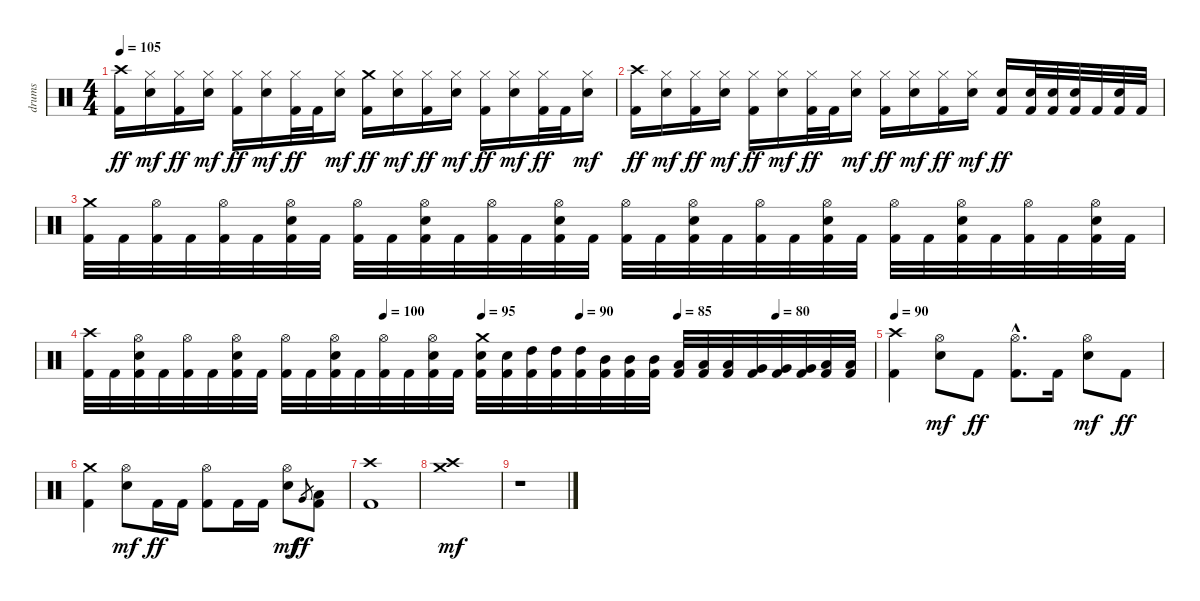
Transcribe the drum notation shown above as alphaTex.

\track ("drums" "drums") {instrument percussion}
\staff {score}
\articulation defaults
\ts (4 4)
\tempo 105
\clef neutral
\ks c
("Crash high (hit)" "Kick (hit) 2").16{dy ff} ("Hi-Hat (closed)" "Snare (hit) 2").16{dy mf} ("Hi-Hat (closed)" "Kick (hit) 2").16{dy ff} ("Hi-Hat (closed)" "Snare (hit) 2").16{dy mf} ("Hi-Hat (closed)" "Kick (hit) 2").16{dy ff} ("Hi-Hat (closed)" "Snare (hit) 2").16{dy mf} ("Hi-Hat (closed)" "Kick (hit) 2").32{dy ff} "Kick (hit) 2".32 ("Hi-Hat (closed)" "Snare (hit) 2").16{dy mf} ("Crash medium (hit)" "Kick (hit) 2").16{dy ff} ("Hi-Hat (closed)" "Snare (hit) 2").16{dy mf} ("Hi-Hat (closed)" "Kick (hit) 2").16{dy ff} ("Hi-Hat (closed)" "Snare (hit) 2").16{dy mf} ("Hi-Hat (closed)" "Kick (hit) 2").16{dy ff} ("Hi-Hat (closed)" "Snare (hit) 2").16{dy mf} ("Hi-Hat (closed)" "Kick (hit) 2").32{dy ff} "Kick (hit) 2".32 ("Hi-Hat (closed)" "Snare (hit) 2").16{dy mf} |
("Crash high (hit)" "Kick (hit) 2").16{dy ff} ("Hi-Hat (closed)" "Snare (hit) 2").16{dy mf} ("Hi-Hat (closed)" "Kick (hit) 2").16{dy ff} ("Hi-Hat (closed)" "Snare (hit) 2").16{dy mf} ("Hi-Hat (closed)" "Kick (hit) 2").16{dy ff} ("Hi-Hat (closed)" "Snare (hit) 2").16{dy mf} ("Hi-Hat (closed)" "Kick (hit) 2").32{dy ff} "Kick (hit) 2".32 ("Hi-Hat (closed)" "Snare (hit) 2").16{dy mf} ("Hi-Hat (closed)" "Kick (hit) 2").16{dy ff} ("Hi-Hat (closed)" "Snare (hit) 2").16{dy mf} ("Hi-Hat (closed)" "Kick (hit) 2").16{dy ff} ("Hi-Hat (closed)" "Snare (hit) 2").16{dy mf} ("Snare (hit) 2" "Kick (hit) 2").16{dy ff} ("Snare (hit) 2" "Kick (hit) 2").32 ("Snare (hit) 2" "Kick (hit) 2").32 ("Snare (hit) 2" "Kick (hit) 2").32 "Kick (hit) 2".32 ("Snare (hit) 2" "Kick (hit) 2").32 "Kick (hit) 2".32 |
("Crash medium (hit)" "Kick (hit) 2").32 "Kick (hit) 2".32 ("Hi-Hat (open)" "Kick (hit) 2").32 "Kick (hit) 2".32 ("Hi-Hat (open)" "Kick (hit) 2").32 "Kick (hit) 2".32 ("Hi-Hat (open)" "Snare (hit) 2" "Kick (hit) 2").32 "Kick (hit) 2".32 ("Hi-Hat (open)" "Kick (hit) 2").32 "Kick (hit) 2".32 ("Hi-Hat (open)" "Snare (hit) 2" "Kick (hit) 2").32 "Kick (hit) 2".32 ("Hi-Hat (open)" "Kick (hit) 2").32 "Kick (hit) 2".32 ("Hi-Hat (open)" "Snare (hit) 2" "Kick (hit) 2").32 "Kick (hit) 2".32 ("Hi-Hat (open)" "Kick (hit) 2").32 "Kick (hit) 2".32 ("Hi-Hat (open)" "Snare (hit) 2" "Kick (hit) 2").32 "Kick (hit) 2".32 ("Hi-Hat (open)" "Kick (hit) 2").32 "Kick (hit) 2".32 ("Hi-Hat (open)" "Snare (hit) 2" "Kick (hit) 2").32 "Kick (hit) 2".32 ("Hi-Hat (open)" "Kick (hit) 2").32 "Kick (hit) 2".32 ("Hi-Hat (open)" "Snare (hit) 2" "Kick (hit) 2").32 "Kick (hit) 2".32 ("Hi-Hat (open)" "Kick (hit) 2").32 "Kick (hit) 2".32 ("Hi-Hat (open)" "Snare (hit) 2" "Kick (hit) 2").32 "Kick (hit) 2".32 |
\tempo (100 0.375)
\tempo (95 0.5)
\tempo (90 0.625)
\tempo (85 0.75)
\tempo (80 0.875)
("Crash high (hit)" "Kick (hit) 2").32 "Kick (hit) 2".32 ("Hi-Hat (open)" "Snare (hit) 2" "Kick (hit) 2").32 "Kick (hit) 2".32 ("Hi-Hat (open)" "Kick (hit) 2").32 "Kick (hit) 2".32 ("Hi-Hat (open)" "Snare (hit) 2" "Kick (hit) 2").32 "Kick (hit) 2".32 ("Hi-Hat (open)" "Kick (hit) 2").32 "Kick (hit) 2".32 ("Hi-Hat (open)" "Snare (hit) 2" "Kick (hit) 2").32 "Kick (hit) 2".32 ("Hi-Hat (open)" "Kick (hit) 2").32 "Kick (hit) 2".32 ("Hi-Hat (open)" "Snare (hit) 2" "Kick (hit) 2").32 "Kick (hit) 2".32 ("Crash medium (hit)" "Snare (hit) 2" "Kick (hit) 2").32 ("Snare (hit) 2" "Kick (hit) 2").32 ("High Tom (hit)" "Kick (hit) 2").32 ("High Tom (hit)" "Kick (hit) 2").32 ("High Tom (hit)" "Kick (hit) 2").32 ("Mid Tom (hit)" "Kick (hit) 2").32 ("Mid Tom (hit)" "Kick (hit) 2").32 ("Mid Tom (hit)" "Kick (hit) 2").32 ("Low Tom (hit)" "Kick (hit) 2").32 ("Low Tom (hit)" "Kick (hit) 2").32 ("Low Tom (hit)" "Kick (hit) 2").32 ("Very Low Tom (hit)" "Kick (hit) 2").32 ("Very Low Tom (hit)" "Kick (hit) 2").32 ("Very Low Tom (hit)" "Kick (hit) 2").32 ("Low Floor Tom (hit)" "Kick (hit) 2").32 ("Low Floor Tom (hit)" "Kick (hit) 2").32 |
\tempo 90
("Crash high (hit)" "Kick (hit) 2").4 ("Hi-Hat (open)" "Snare (hit) 2").8{dy mf} "Kick (hit) 2".8{dy ff} ("Hi-Hat (open)"{hac} "Kick (hit) 2"{hac}).8{d} "Kick (hit) 2".16 ("Hi-Hat (open)" "Snare (hit) 2").8{dy mf} "Kick (hit) 2".8{dy ff} |
("Crash medium (hit)" "Kick (hit) 2").4 ("Hi-Hat (open)" "Snare (hit) 2").8{dy mf} "Kick (hit) 2".16{dy ff} "Kick (hit) 2".16 ("Hi-Hat (open)" "Kick (hit) 2").8 "Kick (hit) 2".16 "Kick (hit) 2".16 ("Hi-Hat (open)" "Snare (hit) 2").8{dy mf} "Very Low Tom (hit)".8{gr dy ff} ("Low Tom (hit)" "Kick (hit) 2").8 |
("Crash high (hit)" "Kick (hit) 2").1 |
("Crash high (hit)" "Crash medium (hit)").1{dy mf} |
r.1
